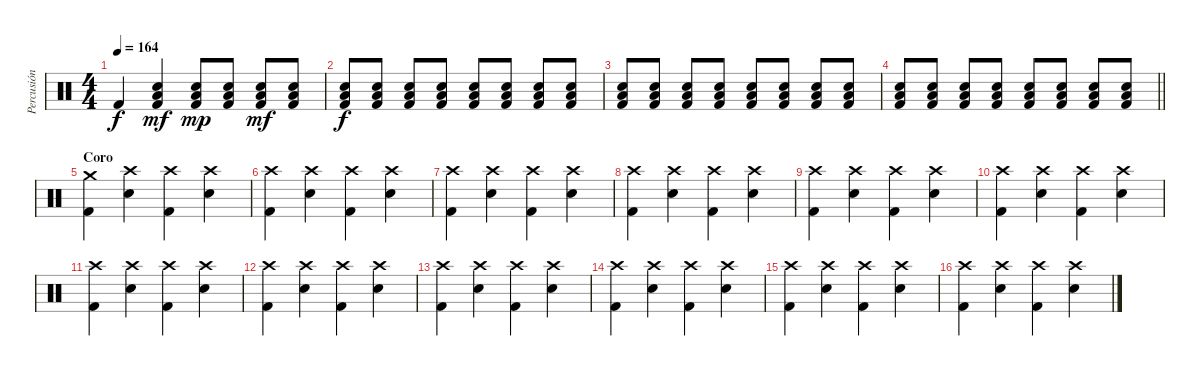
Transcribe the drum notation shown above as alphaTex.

\track ("Percusión" "Percusión") {instrument percussion}
\staff {score}
\articulation defaults
\ts (4 4)
\tempo 164
\clef neutral
\ks c "Kick (hit) 2".4{dy f}
("Electric Snare (hit)" "Low Floor Tom (hit)" "Kick (hit) 2").4{dy mf} ("Electric Snare (hit)" "Low Floor Tom (hit)" "Kick (hit) 2").8{dy mp} ("Electric Snare (hit)" "Low Floor Tom (hit)" "Kick (hit) 2").8 ("Electric Snare (hit)" "Low Floor Tom (hit)" "Kick (hit) 2").8{dy mf} ("Electric Snare (hit)" "Low Floor Tom (hit)" "Kick (hit) 2").8 |
("Electric Snare (hit)" "Low Floor Tom (hit)" "Kick (hit) 2").8{dy f} ("Electric Snare (hit)" "Low Floor Tom (hit)" "Kick (hit) 2").8 ("Electric Snare (hit)" "Low Floor Tom (hit)" "Kick (hit) 2").8 ("Electric Snare (hit)" "Low Floor Tom (hit)" "Kick (hit) 2").8 ("Electric Snare (hit)" "Low Floor Tom (hit)" "Kick (hit) 2").8 ("Electric Snare (hit)" "Low Floor Tom (hit)" "Kick (hit) 2").8 ("Electric Snare (hit)" "Low Floor Tom (hit)" "Kick (hit) 2").8 ("Electric Snare (hit)" "Low Floor Tom (hit)" "Kick (hit) 2").8 |
("Electric Snare (hit)" "Low Floor Tom (hit)" "Kick (hit) 2").8 ("Electric Snare (hit)" "Low Floor Tom (hit)" "Kick (hit) 2").8 ("Electric Snare (hit)" "Low Floor Tom (hit)" "Kick (hit) 2").8 ("Electric Snare (hit)" "Low Floor Tom (hit)" "Kick (hit) 2").8 ("Electric Snare (hit)" "Low Floor Tom (hit)" "Kick (hit) 2").8 ("Electric Snare (hit)" "Low Floor Tom (hit)" "Kick (hit) 2").8 ("Electric Snare (hit)" "Low Floor Tom (hit)" "Kick (hit) 2").8 ("Electric Snare (hit)" "Low Floor Tom (hit)" "Kick (hit) 2").8 |
\barLineRight lightlight
("Electric Snare (hit)" "Low Floor Tom (hit)" "Kick (hit) 2").8 ("Electric Snare (hit)" "Low Floor Tom (hit)" "Kick (hit) 2").8 ("Electric Snare (hit)" "Low Floor Tom (hit)" "Kick (hit) 2").8 ("Electric Snare (hit)" "Low Floor Tom (hit)" "Kick (hit) 2").8 ("Electric Snare (hit)" "Low Floor Tom (hit)" "Kick (hit) 2").8 ("Electric Snare (hit)" "Low Floor Tom (hit)" "Kick (hit) 2").8 ("Electric Snare (hit)" "Low Floor Tom (hit)" "Kick (hit) 2").8 ("Electric Snare (hit)" "Low Floor Tom (hit)" "Kick (hit) 2").8 |
\section ("" "Coro")
("Crash medium (hit)" "Kick (hit) 2").4 ("Crash high (hit)" "Snare (hit) 2").4 ("Crash high (hit)" "Kick (hit) 2").4 ("Crash high (hit)" "Snare (hit) 2").4 |
("Crash high (hit)" "Kick (hit) 2").4 ("Crash high (hit)" "Snare (hit) 2").4 ("Crash high (hit)" "Kick (hit) 2").4 ("Crash high (hit)" "Snare (hit) 2").4 |
("Crash high (hit)" "Kick (hit) 2").4 ("Crash high (hit)" "Snare (hit) 2").4 ("Crash high (hit)" "Kick (hit) 2").4 ("Crash high (hit)" "Snare (hit) 2").4 |
("Crash high (hit)" "Kick (hit) 2").4 ("Crash high (hit)" "Snare (hit) 2").4 ("Crash high (hit)" "Kick (hit) 2").4 ("Crash high (hit)" "Snare (hit) 2").4 |
("Crash high (hit)" "Kick (hit) 2").4 ("Crash high (hit)" "Snare (hit) 2").4 ("Crash high (hit)" "Kick (hit) 2").4 ("Crash high (hit)" "Snare (hit) 2").4 |
("Crash high (hit)" "Kick (hit) 2").4 ("Crash high (hit)" "Snare (hit) 2").4 ("Crash high (hit)" "Kick (hit) 2").4 ("Crash high (hit)" "Snare (hit) 2").4 |
("Crash high (hit)" "Kick (hit) 2").4 ("Crash high (hit)" "Snare (hit) 2").4 ("Crash high (hit)" "Kick (hit) 2").4 ("Crash high (hit)" "Snare (hit) 2").4 |
("Crash high (hit)" "Kick (hit) 2").4 ("Crash high (hit)" "Snare (hit) 2").4 ("Crash high (hit)" "Kick (hit) 2").4 ("Crash high (hit)" "Snare (hit) 2").4 |
("Crash high (hit)" "Kick (hit) 2").4 ("Crash high (hit)" "Snare (hit) 2").4 ("Crash high (hit)" "Kick (hit) 2").4 ("Crash high (hit)" "Snare (hit) 2").4 |
("Crash high (hit)" "Kick (hit) 2").4 ("Crash high (hit)" "Snare (hit) 2").4 ("Crash high (hit)" "Kick (hit) 2").4 ("Crash high (hit)" "Snare (hit) 2").4 |
("Crash high (hit)" "Kick (hit) 2").4 ("Crash high (hit)" "Snare (hit) 2").4 ("Crash high (hit)" "Kick (hit) 2").4 ("Crash high (hit)" "Snare (hit) 2").4 |
("Crash high (hit)" "Kick (hit) 2").4 ("Crash high (hit)" "Snare (hit) 2").4 ("Crash high (hit)" "Kick (hit) 2").4 ("Crash high (hit)" "Snare (hit) 2").4
